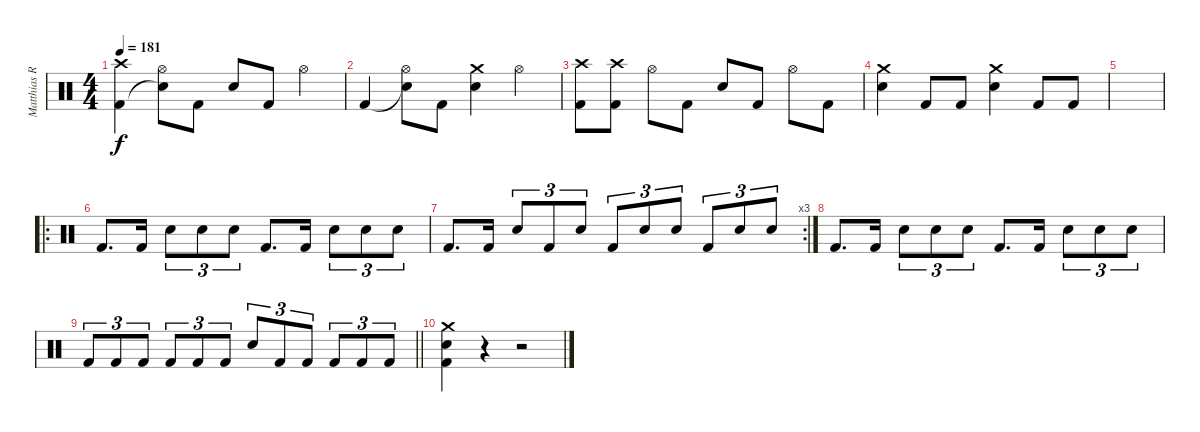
\track ("Matthias R." "Matthias R") {instrument percussion}
\staff {score}
\articulation defaults
\ts (4 4)
\tempo 181
\clef neutral
\ks c
("Kick (hit) 2" "Crash high (hit)").4{dy f} ("Snare (hit)"{t} "Hi-Hat (open)").8 "Kick (hit) 2".8 "Snare (hit) 2".8 "Kick (hit) 2".8 "Hi-Hat (open)".4 |
"Kick (hit) 2".4 ("Snare (hit)"{t} "Hi-Hat (open)").8 "Kick (hit) 2".8 ("Snare (hit) 2" "Crash medium (hit)").4 "Hi-Hat (open)".4 |
("Kick (hit) 2" "Crash high (hit)").8 ("Kick (hit) 2" "Crash high (hit)").8 "Hi-Hat (open)".8 "Kick (hit) 2".8 "Snare (hit) 2".8 "Kick (hit) 2".8 "Hi-Hat (open)".8 "Kick (hit) 2".8 |
("Snare (hit) 2" "Crash medium (hit)").4 "Kick (hit) 2".8 "Kick (hit) 2".8 ("Snare (hit) 2" "Crash medium (hit)").4 "Kick (hit) 2".8 "Kick (hit) 2".8 |
|
\ro "Kick (hit) 2".8{d} "Kick (hit) 2".16 "Snare (hit) 2".8{tu (3 2)} "Snare (hit) 2".8{tu (3 2)} "Snare (hit) 2".8{tu (3 2)} "Kick (hit) 2".8{d} "Kick (hit) 2".16 "Snare (hit) 2".8{tu (3 2)} "Snare (hit) 2".8{tu (3 2)} "Snare (hit) 2".8{tu (3 2)}
|
\rc 3 "Kick (hit) 2".8{d} "Kick (hit) 2".16 "Snare (hit) 2".8{tu (3 2)} "Kick (hit) 2".8{tu (3 2)} "Snare (hit) 2".8{tu (3 2)} "Kick (hit) 2".8{tu (3 2)} "Snare (hit) 2".8{tu (3 2)} "Snare (hit) 2".8{tu (3 2)} "Kick (hit) 2".8{tu (3 2)} "Snare (hit) 2".8{tu (3 2)} "Snare (hit) 2".8{tu (3 2)}
|
"Kick (hit) 2".8{d} "Kick (hit) 2".16 "Snare (hit) 2".8{tu (3 2)} "Snare (hit) 2".8{tu (3 2)} "Snare (hit) 2".8{tu (3 2)} "Kick (hit) 2".8{d} "Kick (hit) 2".16 "Snare (hit) 2".8{tu (3 2)} "Snare (hit) 2".8{tu (3 2)} "Snare (hit) 2".8{tu (3 2)} |
\barLineRight lightlight "Kick (hit) 2".8{tu (3 2)} "Kick (hit) 2".8{tu (3 2)} "Kick (hit) 2".8{tu (3 2)} "Kick (hit) 2".8{tu (3 2)} "Kick (hit) 2".8{tu (3 2)} "Kick (hit) 2".8{tu (3 2)} "Snare (hit) 2".8{tu (3 2)} "Kick (hit) 2".8{tu (3 2)} "Kick (hit) 2".8{tu (3 2)} "Kick (hit) 2".8{tu (3 2)} "Kick (hit) 2".8{tu (3 2)} "Kick (hit) 2".8{tu (3 2)}
|
("Kick (hit) 2" "Snare (hit) 2" "Crash medium (hit)").4 r.4 r.2
